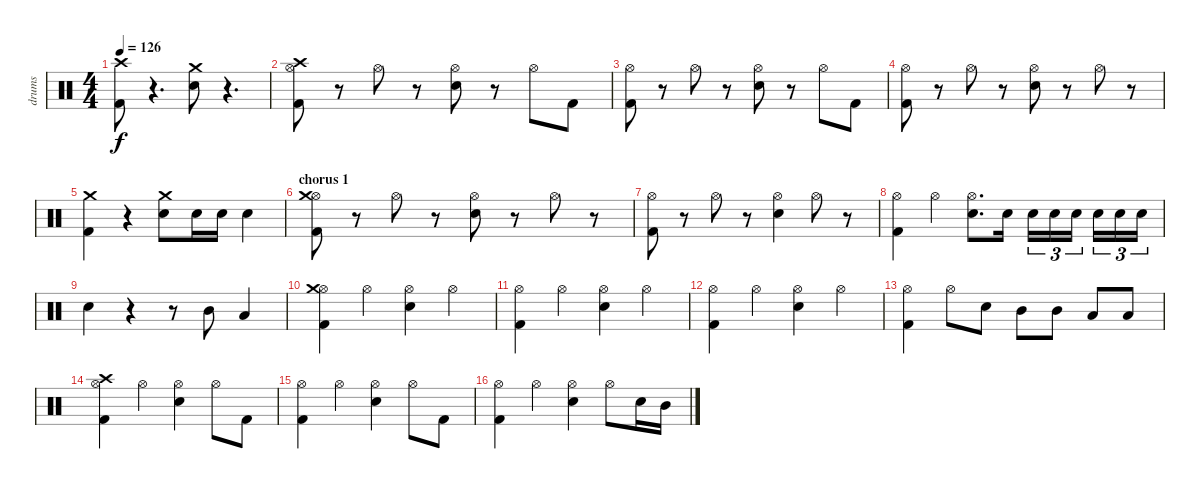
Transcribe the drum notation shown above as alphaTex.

\track ("drums" "drums") {instrument percussion}
\staff {score}
\articulation defaults
\ts (4 4)
\tempo 126
\clef neutral
\ks c
("Kick (hit) 2" "Crash high (hit)").8{dy f} r.4{d} ("Electric Snare (hit)" "Crash medium (hit)").8 r.4{d} |
("Kick (hit) 2" "Hi-Hat (open)" "Crash high (hit)").8 r.8 "Hi-Hat (open)".8 r.8 ("Electric Snare (hit)" "Hi-Hat (open)").8 r.8 "Hi-Hat (open)".8 "Kick (hit) 2".8 |
("Kick (hit) 2" "Hi-Hat (open)").8 r.8 "Hi-Hat (open)".8 r.8 ("Electric Snare (hit)" "Hi-Hat (open)").8 r.8 "Hi-Hat (open)".8 "Kick (hit) 2".8 |
("Kick (hit) 2" "Hi-Hat (open)").8 r.8 "Hi-Hat (open)".8 r.8 ("Electric Snare (hit)" "Hi-Hat (open)").8 r.8 "Hi-Hat (open)".8 r.8 |
("Kick (hit) 2" "Crash medium (hit)").4 r.4 ("Crash medium (hit)" "Electric Snare (hit)").8 "Electric Snare (hit)".16 "Electric Snare (hit)".16 "Electric Snare (hit)".4 |
\section ("" "chorus 1")
("Kick (hit) 2" "Hi-Hat (open)" "Crash medium (hit)").8 r.8 "Hi-Hat (open)".8 r.8 ("Electric Snare (hit)" "Hi-Hat (open)").8 r.8 "Hi-Hat (open)".8 r.8 |
("Kick (hit) 2" "Hi-Hat (open)").8 r.8 "Hi-Hat (open)".8 r.8 ("Electric Snare (hit)" "Hi-Hat (open)").4 "Hi-Hat (open)".8 r.8 |
("Kick (hit) 2" "Hi-Hat (open)").4 "Hi-Hat (open)".4 ("Electric Snare (hit)" "Hi-Hat (open)").8{d} "Electric Snare (hit)".16 "Electric Snare (hit)".16{tu (3 2)} "Electric Snare (hit)".16{tu (3 2)} "Electric Snare (hit)".16{tu (3 2)} "Electric Snare (hit)".16{tu (3 2)} "Electric Snare (hit)".16{tu (3 2)} "Electric Snare (hit)".16{tu (3 2)} |
"Electric Snare (hit)".4 r.4 r.8 "Mid Tom (hit)".8 "Low Tom (hit)".4 |
("Hi-Hat (open)" "Crash medium (hit)" "Kick (hit) 2").4 "Hi-Hat (open)".4 ("Electric Snare (hit)" "Hi-Hat (open)").4 "Hi-Hat (open)".4 |
("Kick (hit) 2" "Hi-Hat (open)").4 "Hi-Hat (open)".4 ("Electric Snare (hit)" "Hi-Hat (open)").4 "Hi-Hat (open)".4 |
("Kick (hit) 2" "Hi-Hat (open)").4 "Hi-Hat (open)".4 ("Electric Snare (hit)" "Hi-Hat (open)").4 "Hi-Hat (open)".4 |
("Kick (hit) 2" "Hi-Hat (open)").4 "Hi-Hat (open)".8 "Electric Snare (hit)".8 "Mid Tom (hit)".8 "Mid Tom (hit)".8 "Low Tom (hit)".8 "Low Tom (hit)".8 |
("Kick (hit) 2" "Hi-Hat (open)" "Crash high (hit)").4 "Hi-Hat (open)".4 ("Electric Snare (hit)" "Hi-Hat (open)").4 "Hi-Hat (open)".8 "Kick (hit) 2".8 |
("Kick (hit) 2" "Hi-Hat (open)").4 "Hi-Hat (open)".4 ("Electric Snare (hit)" "Hi-Hat (open)").4 "Hi-Hat (open)".8 "Kick (hit) 2".8 |
("Kick (hit) 2" "Hi-Hat (open)").4 "Hi-Hat (open)".4 ("Electric Snare (hit)" "Hi-Hat (open)").4 "Hi-Hat (open)".8 "Electric Snare (hit)".16 "Mid Tom (hit)".16
